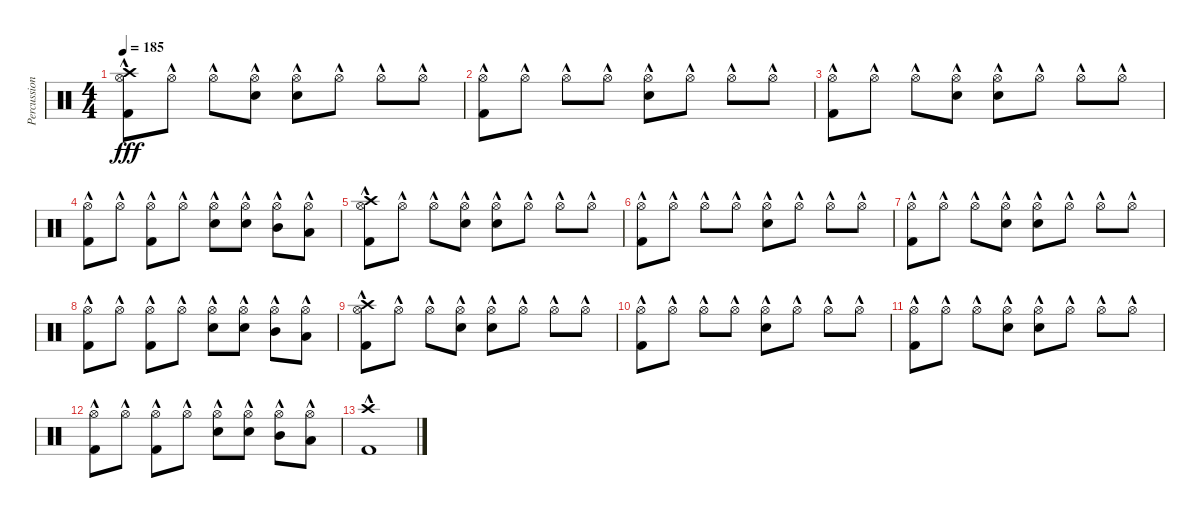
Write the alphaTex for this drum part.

\track ("Percussion" "Percussion") {instrument percussion}
\staff {score}
\articulation defaults
\ts (4 4)
\tempo 185
\clef neutral
\ks c
("Crash high (hit)"{hac} "Kick (hit) 2"{hac} "Hi-Hat (open)"{hac}).8{dy fff} "Hi-Hat (open)"{hac}.8 "Hi-Hat (open)"{hac}.8 ("Electric Snare (hit)"{hac} "Hi-Hat (open)"{hac}).8 ("Electric Snare (hit)"{hac} "Hi-Hat (open)"{hac}).8 "Hi-Hat (open)"{hac}.8 "Hi-Hat (open)"{hac}.8 "Hi-Hat (open)"{hac}.8 |
("Kick (hit) 2"{hac} "Hi-Hat (open)"{hac}).8 "Hi-Hat (open)"{hac}.8 "Hi-Hat (open)"{hac}.8 "Hi-Hat (open)"{hac}.8 ("Electric Snare (hit)"{hac} "Hi-Hat (open)"{hac}).8 "Hi-Hat (open)"{hac}.8 "Hi-Hat (open)"{hac}.8 "Hi-Hat (open)"{hac}.8 |
("Kick (hit) 2"{hac} "Hi-Hat (open)"{hac}).8 "Hi-Hat (open)"{hac}.8 "Hi-Hat (open)"{hac}.8 ("Electric Snare (hit)"{hac} "Hi-Hat (open)"{hac}).8 ("Electric Snare (hit)"{hac} "Hi-Hat (open)"{hac}).8 "Hi-Hat (open)"{hac}.8 "Hi-Hat (open)"{hac}.8 "Hi-Hat (open)"{hac}.8 |
("Kick (hit) 2"{hac} "Hi-Hat (open)"{hac}).8 "Hi-Hat (open)"{hac}.8 ("Kick (hit) 2"{hac} "Hi-Hat (open)"{hac}).8 "Hi-Hat (open)"{hac}.8 ("Electric Snare (hit)"{hac} "Hi-Hat (open)"{hac}).8 ("Electric Snare (hit)"{hac} "Hi-Hat (open)"{hac}).8 ("Mid Tom (hit)"{hac} "Hi-Hat (open)"{hac}).8 ("Low Floor Tom (hit)"{hac} "Hi-Hat (open)"{hac}).8 |
("Crash high (hit)"{hac} "Kick (hit) 2"{hac} "Hi-Hat (open)"{hac}).8 "Hi-Hat (open)"{hac}.8 "Hi-Hat (open)"{hac}.8 ("Electric Snare (hit)"{hac} "Hi-Hat (open)"{hac}).8 ("Electric Snare (hit)"{hac} "Hi-Hat (open)"{hac}).8 "Hi-Hat (open)"{hac}.8 "Hi-Hat (open)"{hac}.8 "Hi-Hat (open)"{hac}.8 |
("Kick (hit) 2"{hac} "Hi-Hat (open)"{hac}).8 "Hi-Hat (open)"{hac}.8 "Hi-Hat (open)"{hac}.8 "Hi-Hat (open)"{hac}.8 ("Electric Snare (hit)"{hac} "Hi-Hat (open)"{hac}).8 "Hi-Hat (open)"{hac}.8 "Hi-Hat (open)"{hac}.8 "Hi-Hat (open)"{hac}.8 |
("Kick (hit) 2"{hac} "Hi-Hat (open)"{hac}).8 "Hi-Hat (open)"{hac}.8 "Hi-Hat (open)"{hac}.8 ("Electric Snare (hit)"{hac} "Hi-Hat (open)"{hac}).8 ("Electric Snare (hit)"{hac} "Hi-Hat (open)"{hac}).8 "Hi-Hat (open)"{hac}.8 "Hi-Hat (open)"{hac}.8 "Hi-Hat (open)"{hac}.8 |
("Kick (hit) 2"{hac} "Hi-Hat (open)"{hac}).8 "Hi-Hat (open)"{hac}.8 ("Kick (hit) 2"{hac} "Hi-Hat (open)"{hac}).8 "Hi-Hat (open)"{hac}.8 ("Electric Snare (hit)"{hac} "Hi-Hat (open)"{hac}).8 ("Electric Snare (hit)"{hac} "Hi-Hat (open)"{hac}).8 ("Mid Tom (hit)"{hac} "Hi-Hat (open)"{hac}).8 ("Low Floor Tom (hit)"{hac} "Hi-Hat (open)"{hac}).8 |
("Crash high (hit)"{hac} "Kick (hit) 2"{hac} "Hi-Hat (open)"{hac}).8 "Hi-Hat (open)"{hac}.8 "Hi-Hat (open)"{hac}.8 ("Electric Snare (hit)"{hac} "Hi-Hat (open)"{hac}).8 ("Electric Snare (hit)"{hac} "Hi-Hat (open)"{hac}).8 "Hi-Hat (open)"{hac}.8 "Hi-Hat (open)"{hac}.8 "Hi-Hat (open)"{hac}.8 |
("Kick (hit) 2"{hac} "Hi-Hat (open)"{hac}).8 "Hi-Hat (open)"{hac}.8 "Hi-Hat (open)"{hac}.8 "Hi-Hat (open)"{hac}.8 ("Electric Snare (hit)"{hac} "Hi-Hat (open)"{hac}).8 "Hi-Hat (open)"{hac}.8 "Hi-Hat (open)"{hac}.8 "Hi-Hat (open)"{hac}.8 |
("Kick (hit) 2"{hac} "Hi-Hat (open)"{hac}).8 "Hi-Hat (open)"{hac}.8 "Hi-Hat (open)"{hac}.8 ("Electric Snare (hit)"{hac} "Hi-Hat (open)"{hac}).8 ("Electric Snare (hit)"{hac} "Hi-Hat (open)"{hac}).8 "Hi-Hat (open)"{hac}.8 "Hi-Hat (open)"{hac}.8 "Hi-Hat (open)"{hac}.8 |
("Kick (hit) 2"{hac} "Hi-Hat (open)"{hac}).8 "Hi-Hat (open)"{hac}.8 ("Kick (hit) 2"{hac} "Hi-Hat (open)"{hac}).8 "Hi-Hat (open)"{hac}.8 ("Electric Snare (hit)"{hac} "Hi-Hat (open)"{hac}).8 ("Electric Snare (hit)"{hac} "Hi-Hat (open)"{hac}).8 ("Mid Tom (hit)"{hac} "Hi-Hat (open)"{hac}).8 ("Low Floor Tom (hit)"{hac} "Hi-Hat (open)"{hac}).8 |
("Kick (hit) 2"{hac} "Crash high (hit)"{hac}).1
